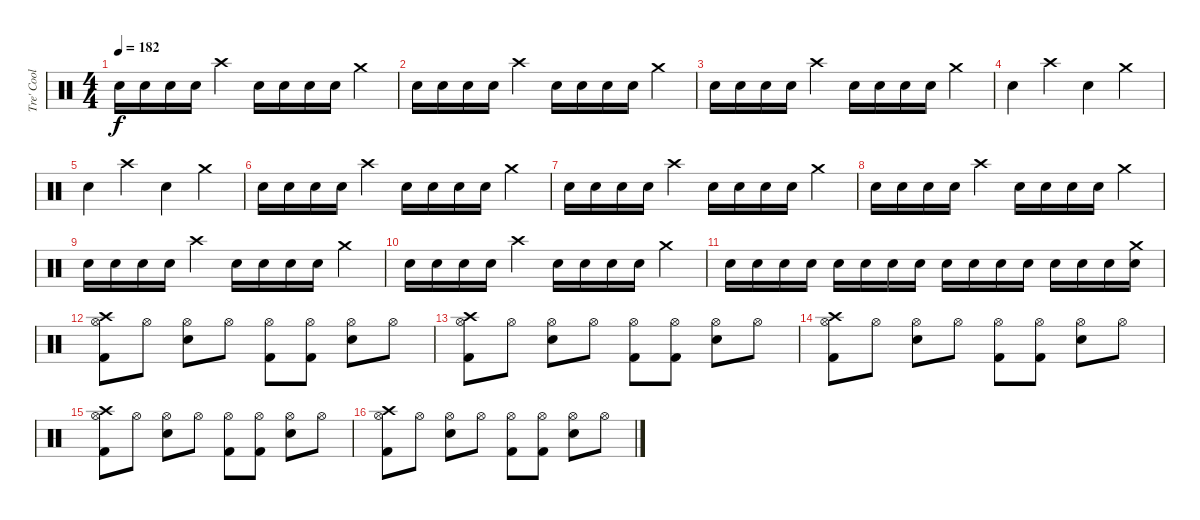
\track ("Tre' Cool (DRUMS)!!!!!!!!!" "Tre' Cool ") {instrument percussion}
\staff {score}
\articulation defaults
\ts (4 4)
\tempo 182
\clef neutral
\ks c "Snare (hit) 2".16{dy f} "Snare (hit) 2".16 "Snare (hit) 2".16 "Snare (hit) 2".16 "Crash high (hit)".4 "Snare (hit) 2".16 "Snare (hit) 2".16 "Snare (hit) 2".16 "Snare (hit) 2".16 "Crash medium (hit)".4
|
"Snare (hit) 2".16 "Snare (hit) 2".16 "Snare (hit) 2".16 "Snare (hit) 2".16 "Crash high (hit)".4 "Snare (hit) 2".16 "Snare (hit) 2".16 "Snare (hit) 2".16 "Snare (hit) 2".16 "Crash medium (hit)".4 |
"Snare (hit) 2".16 "Snare (hit) 2".16 "Snare (hit) 2".16 "Snare (hit) 2".16 "Crash high (hit)".4 "Snare (hit) 2".16 "Snare (hit) 2".16 "Snare (hit) 2".16 "Snare (hit) 2".16 "Crash medium (hit)".4 |
"Snare (hit) 2".4 "Crash high (hit)".4 "Snare (hit) 2".4 "Crash medium (hit)".4 |
"Snare (hit) 2".4 "Crash high (hit)".4 "Snare (hit) 2".4 "Crash medium (hit)".4 |
"Snare (hit) 2".16 "Snare (hit) 2".16 "Snare (hit) 2".16 "Snare (hit) 2".16 "Crash high (hit)".4 "Snare (hit) 2".16 "Snare (hit) 2".16 "Snare (hit) 2".16 "Snare (hit) 2".16 "Crash medium (hit)".4 |
"Snare (hit) 2".16 "Snare (hit) 2".16 "Snare (hit) 2".16 "Snare (hit) 2".16 "Crash high (hit)".4 "Snare (hit) 2".16 "Snare (hit) 2".16 "Snare (hit) 2".16 "Snare (hit) 2".16 "Crash medium (hit)".4 |
"Snare (hit) 2".16 "Snare (hit) 2".16 "Snare (hit) 2".16 "Snare (hit) 2".16 "Crash high (hit)".4 "Snare (hit) 2".16 "Snare (hit) 2".16 "Snare (hit) 2".16 "Snare (hit) 2".16 "Crash medium (hit)".4 |
"Snare (hit) 2".16 "Snare (hit) 2".16 "Snare (hit) 2".16 "Snare (hit) 2".16 "Crash high (hit)".4 "Snare (hit) 2".16 "Snare (hit) 2".16 "Snare (hit) 2".16 "Snare (hit) 2".16 "Crash medium (hit)".4 |
"Snare (hit) 2".16 "Snare (hit) 2".16 "Snare (hit) 2".16 "Snare (hit) 2".16 "Crash high (hit)".4 "Snare (hit) 2".16 "Snare (hit) 2".16 "Snare (hit) 2".16 "Snare (hit) 2".16 "Crash medium (hit)".4 |
"Snare (hit) 2".16 "Snare (hit) 2".16 "Snare (hit) 2".16 "Snare (hit) 2".16 "Snare (hit) 2".16 "Snare (hit) 2".16 "Snare (hit) 2".16 "Snare (hit) 2".16 "Snare (hit) 2".16 "Snare (hit) 2".16 "Snare (hit) 2".16 "Snare (hit) 2".16 "Snare (hit) 2".16 "Snare (hit) 2".16 "Snare (hit) 2".16 ("Crash medium (hit)" "Snare (hit) 2").16 |
("Crash high (hit)" "Hi-Hat (open)" "Kick (hit) 2").8 "Hi-Hat (open)".8 ("Hi-Hat (open)" "Snare (hit) 2").8 "Hi-Hat (open)".8 ("Hi-Hat (open)" "Kick (hit) 2").8 ("Hi-Hat (open)" "Kick (hit) 2").8 ("Hi-Hat (open)" "Snare (hit) 2").8 "Hi-Hat (open)".8 |
("Crash high (hit)" "Hi-Hat (open)" "Kick (hit) 2").8 "Hi-Hat (open)".8 ("Hi-Hat (open)" "Snare (hit) 2").8 "Hi-Hat (open)".8 ("Hi-Hat (open)" "Kick (hit) 2").8 ("Hi-Hat (open)" "Kick (hit) 2").8 ("Hi-Hat (open)" "Snare (hit) 2").8 "Hi-Hat (open)".8 |
("Crash high (hit)" "Hi-Hat (open)" "Kick (hit) 2").8 "Hi-Hat (open)".8 ("Hi-Hat (open)" "Snare (hit) 2").8 "Hi-Hat (open)".8 ("Hi-Hat (open)" "Kick (hit) 2").8 ("Hi-Hat (open)" "Kick (hit) 2").8 ("Hi-Hat (open)" "Snare (hit) 2").8 "Hi-Hat (open)".8 |
("Crash high (hit)" "Hi-Hat (open)" "Kick (hit) 2").8 "Hi-Hat (open)".8 ("Hi-Hat (open)" "Snare (hit) 2").8 "Hi-Hat (open)".8 ("Hi-Hat (open)" "Kick (hit) 2").8 ("Hi-Hat (open)" "Kick (hit) 2").8 ("Hi-Hat (open)" "Snare (hit) 2").8 "Hi-Hat (open)".8 |
("Crash high (hit)" "Hi-Hat (open)" "Kick (hit) 2").8 "Hi-Hat (open)".8 ("Hi-Hat (open)" "Snare (hit) 2").8 "Hi-Hat (open)".8 ("Hi-Hat (open)" "Kick (hit) 2").8 ("Hi-Hat (open)" "Kick (hit) 2").8 ("Hi-Hat (open)" "Snare (hit) 2").8 "Hi-Hat (open)".8
